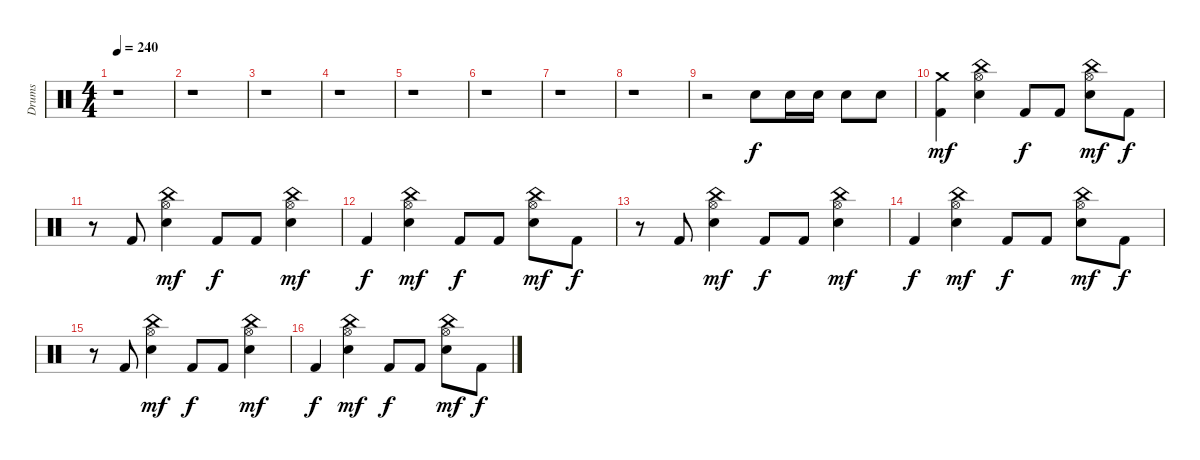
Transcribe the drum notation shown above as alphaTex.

\track ("Drums" "Drums") {instrument percussion}
\staff {score}
\articulation defaults
\ts (4 4)
\tempo 240
\clef neutral
\ks c
r.1{dy f} |
r.1 |
r.1 |
r.1 |
r.1 |
r.1 |
r.1 |
r.1 |
r.2 "Electric Snare (hit)".8 "Electric Snare (hit)".16 "Electric Snare (hit)".16 "Electric Snare (hit)".8 "Electric Snare (hit)".8 |
("Kick (hit) 2" "Crash medium (hit)").4{dy mf} ("Electric Snare (hit)" "China (hit)" "Hi-Hat (open)").4 "Kick (hit) 2".8{dy f} "Kick (hit) 2".8 ("Electric Snare (hit)" "China (hit)" "Hi-Hat (open)").8{dy mf} "Kick (hit) 2".8{dy f} |
r.8 "Kick (hit) 2".8 ("Electric Snare (hit)" "China (hit)" "Hi-Hat (open)").4{dy mf} "Kick (hit) 2".8{dy f} "Kick (hit) 2".8 ("Electric Snare (hit)" "China (hit)" "Hi-Hat (open)").4{dy mf} |
"Kick (hit) 2".4{dy f} ("Electric Snare (hit)" "China (hit)" "Hi-Hat (open)").4{dy mf} "Kick (hit) 2".8{dy f} "Kick (hit) 2".8 ("Electric Snare (hit)" "China (hit)" "Hi-Hat (open)").8{dy mf} "Kick (hit) 2".8{dy f} |
r.8 "Kick (hit) 2".8 ("Electric Snare (hit)" "China (hit)" "Hi-Hat (open)").4{dy mf} "Kick (hit) 2".8{dy f} "Kick (hit) 2".8 ("Electric Snare (hit)" "China (hit)" "Hi-Hat (open)").4{dy mf} |
"Kick (hit) 2".4{dy f} ("Electric Snare (hit)" "China (hit)" "Hi-Hat (open)").4{dy mf} "Kick (hit) 2".8{dy f} "Kick (hit) 2".8 ("Electric Snare (hit)" "China (hit)" "Hi-Hat (open)").8{dy mf} "Kick (hit) 2".8{dy f} |
r.8 "Kick (hit) 2".8 ("Electric Snare (hit)" "China (hit)" "Hi-Hat (open)").4{dy mf} "Kick (hit) 2".8{dy f} "Kick (hit) 2".8 ("Electric Snare (hit)" "China (hit)" "Hi-Hat (open)").4{dy mf} |
"Kick (hit) 2".4{dy f} ("Electric Snare (hit)" "China (hit)" "Hi-Hat (open)").4{dy mf} "Kick (hit) 2".8{dy f} "Kick (hit) 2".8 ("Electric Snare (hit)" "China (hit)" "Hi-Hat (open)").8{dy mf} "Kick (hit) 2".8{dy f}
